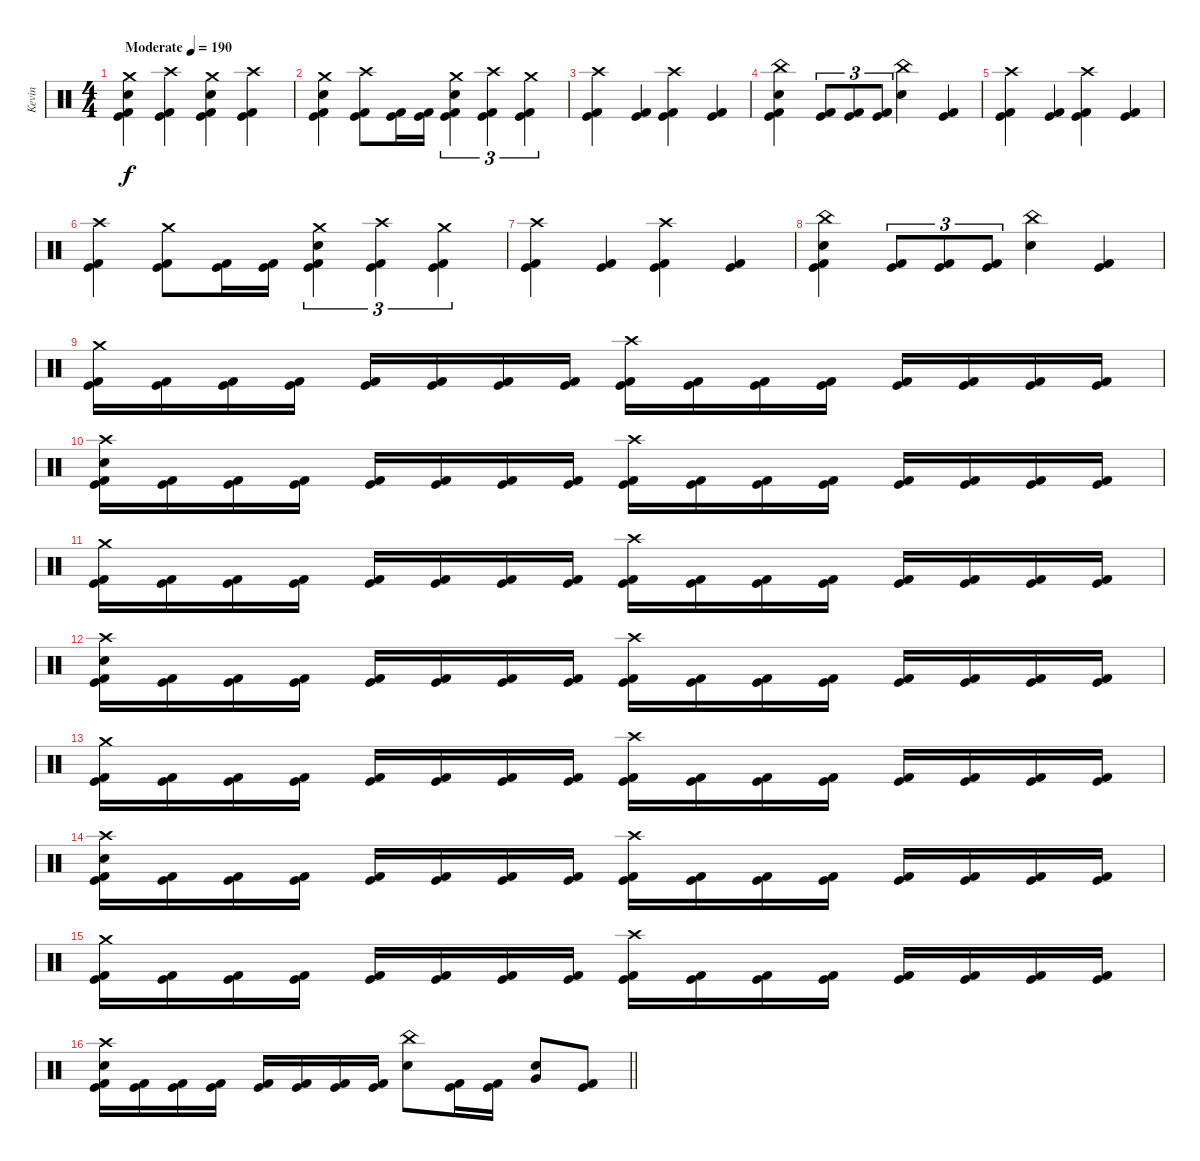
\track ("Kevin" "Kevin") {instrument percussion}
\staff {score}
\articulation defaults
\ts (4 4)
\tempo (190 "Moderate")
\clef neutral
\ks c
("Crash medium (hit)" "Electric Snare (hit)" "Kick (hit)" "Kick (hit) 2").4{dy f} ("Crash high (hit)" "Kick (hit)" "Kick (hit) 2").4 ("Crash medium (hit)" "Electric Snare (hit)" "Kick (hit)" "Kick (hit) 2").4 ("Crash high (hit)" "Kick (hit)" "Kick (hit) 2").4 |
("Crash medium (hit)" "Electric Snare (hit)" "Kick (hit)" "Kick (hit) 2").4 ("Crash high (hit)" "Kick (hit)" "Kick (hit) 2").8 ("Kick (hit)" "Kick (hit) 2").16 ("Kick (hit)" "Kick (hit) 2").16 ("Crash medium (hit)" "Electric Snare (hit)" "Kick (hit)" "Kick (hit) 2").4{tu (3 2)} ("Crash high (hit)" "Kick (hit)" "Kick (hit) 2").4{tu (3 2)} ("Crash medium (hit)" "Kick (hit)" "Kick (hit) 2").4{tu (3 2)} |
("Crash high (hit)" "Kick (hit)" "Kick (hit) 2").4 ("Kick (hit)" "Kick (hit) 2").4 ("Crash high (hit)" "Kick (hit)" "Kick (hit) 2").4 ("Kick (hit)" "Kick (hit) 2").4 |
("China (hit)" "Electric Snare (hit)" "Kick (hit)" "Kick (hit) 2").4 ("Kick (hit)" "Kick (hit) 2").8{tu (3 2)} ("Kick (hit)" "Kick (hit) 2").8{tu (3 2)} ("Kick (hit)" "Kick (hit) 2").8{tu (3 2)} ("China (hit)" "Electric Snare (hit)").4 ("Kick (hit)" "Kick (hit) 2").4 |
("Crash high (hit)" "Kick (hit)" "Kick (hit) 2").4 ("Kick (hit)" "Kick (hit) 2").4 ("Crash high (hit)" "Kick (hit)" "Kick (hit) 2").4 ("Kick (hit)" "Kick (hit) 2").4 |
("Crash high (hit)" "Kick (hit)" "Kick (hit) 2").4 ("Crash medium (hit)" "Kick (hit)" "Kick (hit) 2").8 ("Kick (hit)" "Kick (hit) 2").16 ("Kick (hit)" "Kick (hit) 2").16 ("Crash medium (hit)" "Electric Snare (hit)" "Kick (hit)" "Kick (hit) 2").4{tu (3 2)} ("Crash high (hit)" "Kick (hit)" "Kick (hit) 2").4{tu (3 2)} ("Crash medium (hit)" "Kick (hit)" "Kick (hit) 2").4{tu (3 2)} |
("Crash high (hit)" "Kick (hit)" "Kick (hit) 2").4 ("Kick (hit)" "Kick (hit) 2").4 ("Crash high (hit)" "Kick (hit)" "Kick (hit) 2").4 ("Kick (hit)" "Kick (hit) 2").4 |
("China (hit)" "Electric Snare (hit)" "Kick (hit)" "Kick (hit) 2").4 ("Kick (hit)" "Kick (hit) 2").8{tu (3 2)} ("Kick (hit)" "Kick (hit) 2").8{tu (3 2)} ("Kick (hit)" "Kick (hit) 2").8{tu (3 2)} ("China (hit)" "Electric Snare (hit)").4 ("Kick (hit)" "Kick (hit) 2").4 |
("Crash medium (hit)" "Kick (hit)" "Kick (hit) 2").16 ("Kick (hit)" "Kick (hit) 2").16 ("Kick (hit)" "Kick (hit) 2").16 ("Kick (hit)" "Kick (hit) 2").16 ("Kick (hit)" "Kick (hit) 2").16 ("Kick (hit)" "Kick (hit) 2").16 ("Kick (hit)" "Kick (hit) 2").16 ("Kick (hit)" "Kick (hit) 2").16 ("Crash high (hit)" "Kick (hit)" "Kick (hit) 2").16 ("Kick (hit)" "Kick (hit) 2").16 ("Kick (hit)" "Kick (hit) 2").16 ("Kick (hit)" "Kick (hit) 2").16 ("Kick (hit)" "Kick (hit) 2").16 ("Kick (hit)" "Kick (hit) 2").16 ("Kick (hit)" "Kick (hit) 2").16 ("Kick (hit)" "Kick (hit) 2").16 |
("Crash high (hit)" "Electric Snare (hit)" "Kick (hit)" "Kick (hit) 2").16 ("Kick (hit)" "Kick (hit) 2").16 ("Kick (hit)" "Kick (hit) 2").16 ("Kick (hit)" "Kick (hit) 2").16 ("Kick (hit)" "Kick (hit) 2").16 ("Kick (hit)" "Kick (hit) 2").16 ("Kick (hit)" "Kick (hit) 2").16 ("Kick (hit)" "Kick (hit) 2").16 ("Crash high (hit)" "Kick (hit)" "Kick (hit) 2").16 ("Kick (hit)" "Kick (hit) 2").16 ("Kick (hit)" "Kick (hit) 2").16 ("Kick (hit)" "Kick (hit) 2").16 ("Kick (hit)" "Kick (hit) 2").16 ("Kick (hit)" "Kick (hit) 2").16 ("Kick (hit)" "Kick (hit) 2").16 ("Kick (hit)" "Kick (hit) 2").16 |
("Crash medium (hit)" "Kick (hit)" "Kick (hit) 2").16 ("Kick (hit)" "Kick (hit) 2").16 ("Kick (hit)" "Kick (hit) 2").16 ("Kick (hit)" "Kick (hit) 2").16 ("Kick (hit)" "Kick (hit) 2").16 ("Kick (hit)" "Kick (hit) 2").16 ("Kick (hit)" "Kick (hit) 2").16 ("Kick (hit)" "Kick (hit) 2").16 ("Crash high (hit)" "Kick (hit)" "Kick (hit) 2").16 ("Kick (hit)" "Kick (hit) 2").16 ("Kick (hit)" "Kick (hit) 2").16 ("Kick (hit)" "Kick (hit) 2").16 ("Kick (hit)" "Kick (hit) 2").16 ("Kick (hit)" "Kick (hit) 2").16 ("Kick (hit)" "Kick (hit) 2").16 ("Kick (hit)" "Kick (hit) 2").16 |
("Crash high (hit)" "Electric Snare (hit)" "Kick (hit)" "Kick (hit) 2").16 ("Kick (hit)" "Kick (hit) 2").16 ("Kick (hit)" "Kick (hit) 2").16 ("Kick (hit)" "Kick (hit) 2").16 ("Kick (hit)" "Kick (hit) 2").16 ("Kick (hit)" "Kick (hit) 2").16 ("Kick (hit)" "Kick (hit) 2").16 ("Kick (hit)" "Kick (hit) 2").16 ("Crash high (hit)" "Kick (hit)" "Kick (hit) 2").16 ("Kick (hit)" "Kick (hit) 2").16 ("Kick (hit)" "Kick (hit) 2").16 ("Kick (hit)" "Kick (hit) 2").16 ("Kick (hit)" "Kick (hit) 2").16 ("Kick (hit)" "Kick (hit) 2").16 ("Kick (hit)" "Kick (hit) 2").16 ("Kick (hit)" "Kick (hit) 2").16 |
("Crash medium (hit)" "Kick (hit)" "Kick (hit) 2").16 ("Kick (hit)" "Kick (hit) 2").16 ("Kick (hit)" "Kick (hit) 2").16 ("Kick (hit)" "Kick (hit) 2").16 ("Kick (hit)" "Kick (hit) 2").16 ("Kick (hit)" "Kick (hit) 2").16 ("Kick (hit)" "Kick (hit) 2").16 ("Kick (hit)" "Kick (hit) 2").16 ("Crash high (hit)" "Kick (hit)" "Kick (hit) 2").16 ("Kick (hit)" "Kick (hit) 2").16 ("Kick (hit)" "Kick (hit) 2").16 ("Kick (hit)" "Kick (hit) 2").16 ("Kick (hit)" "Kick (hit) 2").16 ("Kick (hit)" "Kick (hit) 2").16 ("Kick (hit)" "Kick (hit) 2").16 ("Kick (hit)" "Kick (hit) 2").16 |
("Crash high (hit)" "Electric Snare (hit)" "Kick (hit)" "Kick (hit) 2").16 ("Kick (hit)" "Kick (hit) 2").16 ("Kick (hit)" "Kick (hit) 2").16 ("Kick (hit)" "Kick (hit) 2").16 ("Kick (hit)" "Kick (hit) 2").16 ("Kick (hit)" "Kick (hit) 2").16 ("Kick (hit)" "Kick (hit) 2").16 ("Kick (hit)" "Kick (hit) 2").16 ("Crash high (hit)" "Kick (hit)" "Kick (hit) 2").16 ("Kick (hit)" "Kick (hit) 2").16 ("Kick (hit)" "Kick (hit) 2").16 ("Kick (hit)" "Kick (hit) 2").16 ("Kick (hit)" "Kick (hit) 2").16 ("Kick (hit)" "Kick (hit) 2").16 ("Kick (hit)" "Kick (hit) 2").16 ("Kick (hit)" "Kick (hit) 2").16 |
("Crash medium (hit)" "Kick (hit)" "Kick (hit) 2").16 ("Kick (hit)" "Kick (hit) 2").16 ("Kick (hit)" "Kick (hit) 2").16 ("Kick (hit)" "Kick (hit) 2").16 ("Kick (hit)" "Kick (hit) 2").16 ("Kick (hit)" "Kick (hit) 2").16 ("Kick (hit)" "Kick (hit) 2").16 ("Kick (hit)" "Kick (hit) 2").16 ("Crash high (hit)" "Kick (hit)" "Kick (hit) 2").16 ("Kick (hit)" "Kick (hit) 2").16 ("Kick (hit)" "Kick (hit) 2").16 ("Kick (hit)" "Kick (hit) 2").16 ("Kick (hit)" "Kick (hit) 2").16 ("Kick (hit)" "Kick (hit) 2").16 ("Kick (hit)" "Kick (hit) 2").16 ("Kick (hit)" "Kick (hit) 2").16 |
\barLineRight lightlight
("Crash high (hit)" "Electric Snare (hit)" "Kick (hit)" "Kick (hit) 2").16 ("Kick (hit)" "Kick (hit) 2").16 ("Kick (hit)" "Kick (hit) 2").16 ("Kick (hit)" "Kick (hit) 2").16 ("Kick (hit)" "Kick (hit) 2").16 ("Kick (hit)" "Kick (hit) 2").16 ("Kick (hit)" "Kick (hit) 2").16 ("Kick (hit)" "Kick (hit) 2").16 ("China (hit)" "Electric Snare (hit)").8 ("Kick (hit)" "Kick (hit) 2").16 ("Kick (hit)" "Kick (hit) 2").16 ("Electric Snare (hit)" "Very Low Tom (hit)").8 ("Kick (hit)" "Kick (hit) 2").8
